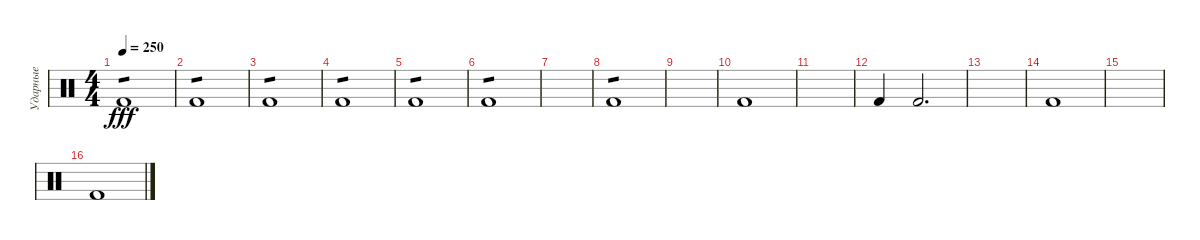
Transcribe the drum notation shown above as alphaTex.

\track ("Ударные" "Ударные") {instrument percussion}
\staff {score}
\articulation defaults
\ts (4 4)
\tempo 250
\clef neutral
\ks c "Kick (hit) 2".1{tp 1 dy fff}
|
"Kick (hit) 2".1{tp 1} |
"Kick (hit) 2".1{tp 1} |
"Kick (hit) 2".1{tp 1} |
"Kick (hit) 2".1{tp 1} |
"Kick (hit) 2".1{tp 1} |
|
"Kick (hit) 2".1{tp 1} |
|
"Kick (hit) 2".1 |
|
"Kick (hit) 2".4 "Kick (hit) 2".2{d} |
|
"Kick (hit) 2".1 |
|
"Kick (hit) 2".1
